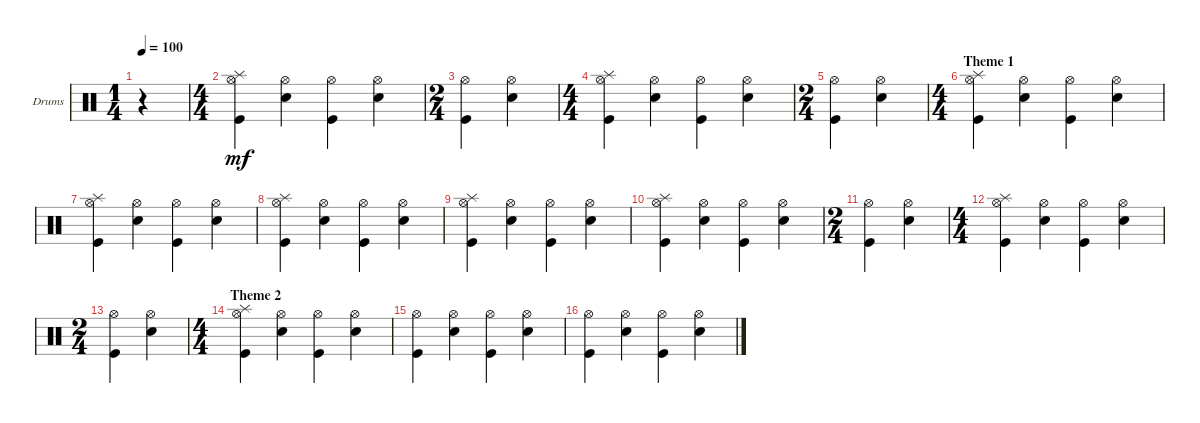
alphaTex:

\defaultSystemsLayout 4
\bracketExtendMode groupsimilarinstruments
\firstSystemTrackNameOrientation horizontal
\otherSystemsTrackNameOrientation horizontal
\track ("Drumkit" "Drums") {instrument percussion}
\staff {score}
\articulation defaults
\ts (1 4)
\tempo 100
\clef neutral
\ks c
r.4{dy mf} |
\ts (4 4)
("Kick (hit)" "Splash (hit)" "Hi-Hat (open)").4 ("Hi-Hat (open)" "Snare (hit) 2").4 ("Hi-Hat (open)" "Kick (hit)").4 ("Hi-Hat (open)" "Snare (hit) 2").4 |
\ts (2 4)
("Hi-Hat (open)" "Kick (hit)").4 ("Hi-Hat (open)" "Snare (hit) 2").4 |
\ts (4 4)
("Kick (hit)" "Splash (hit)" "Hi-Hat (open)").4 ("Hi-Hat (open)" "Snare (hit) 2").4 ("Hi-Hat (open)" "Kick (hit)").4 ("Hi-Hat (open)" "Snare (hit) 2").4 |
\ts (2 4)
("Hi-Hat (open)" "Kick (hit)").4 ("Hi-Hat (open)" "Snare (hit) 2").4 |
\ts (4 4)
\section ("" "Theme 1")
("Kick (hit)" "Splash (hit)" "Hi-Hat (open)").4 ("Hi-Hat (open)" "Snare (hit) 2").4 ("Hi-Hat (open)" "Kick (hit)").4 ("Hi-Hat (open)" "Snare (hit) 2").4 |
("Kick (hit)" "Splash (hit)" "Hi-Hat (open)").4 ("Hi-Hat (open)" "Snare (hit) 2").4 ("Hi-Hat (open)" "Kick (hit)").4 ("Hi-Hat (open)" "Snare (hit) 2").4 |
("Kick (hit)" "Splash (hit)" "Hi-Hat (open)").4 ("Hi-Hat (open)" "Snare (hit) 2").4 ("Hi-Hat (open)" "Kick (hit)").4 ("Hi-Hat (open)" "Snare (hit) 2").4 |
("Kick (hit)" "Splash (hit)" "Hi-Hat (open)").4 ("Hi-Hat (open)" "Snare (hit) 2").4 ("Hi-Hat (open)" "Kick (hit)").4 ("Hi-Hat (open)" "Snare (hit) 2").4 |
("Kick (hit)" "Splash (hit)" "Hi-Hat (open)").4 ("Hi-Hat (open)" "Snare (hit) 2").4 ("Hi-Hat (open)" "Kick (hit)").4 ("Hi-Hat (open)" "Snare (hit) 2").4 |
\ts (2 4)
("Hi-Hat (open)" "Kick (hit)").4 ("Hi-Hat (open)" "Snare (hit) 2").4 |
\ts (4 4)
("Kick (hit)" "Splash (hit)" "Hi-Hat (open)").4 ("Hi-Hat (open)" "Snare (hit) 2").4 ("Hi-Hat (open)" "Kick (hit)").4 ("Hi-Hat (open)" "Snare (hit) 2").4 |
\ts (2 4)
("Hi-Hat (open)" "Kick (hit)").4 ("Hi-Hat (open)" "Snare (hit) 2").4 |
\ts (4 4)
\section ("" "Theme 2")
("Kick (hit)" "Splash (hit)" "Hi-Hat (open)").4 ("Hi-Hat (open)" "Snare (hit) 2").4 ("Hi-Hat (open)" "Kick (hit)").4 ("Hi-Hat (open)" "Snare (hit) 2").4 |
("Hi-Hat (open)" "Kick (hit)").4 ("Hi-Hat (open)" "Snare (hit) 2").4 ("Hi-Hat (open)" "Kick (hit)").4 ("Hi-Hat (open)" "Snare (hit) 2").4 |
("Hi-Hat (open)" "Kick (hit)").4 ("Hi-Hat (open)" "Snare (hit) 2").4 ("Hi-Hat (open)" "Kick (hit)").4 ("Hi-Hat (open)" "Snare (hit) 2").4
